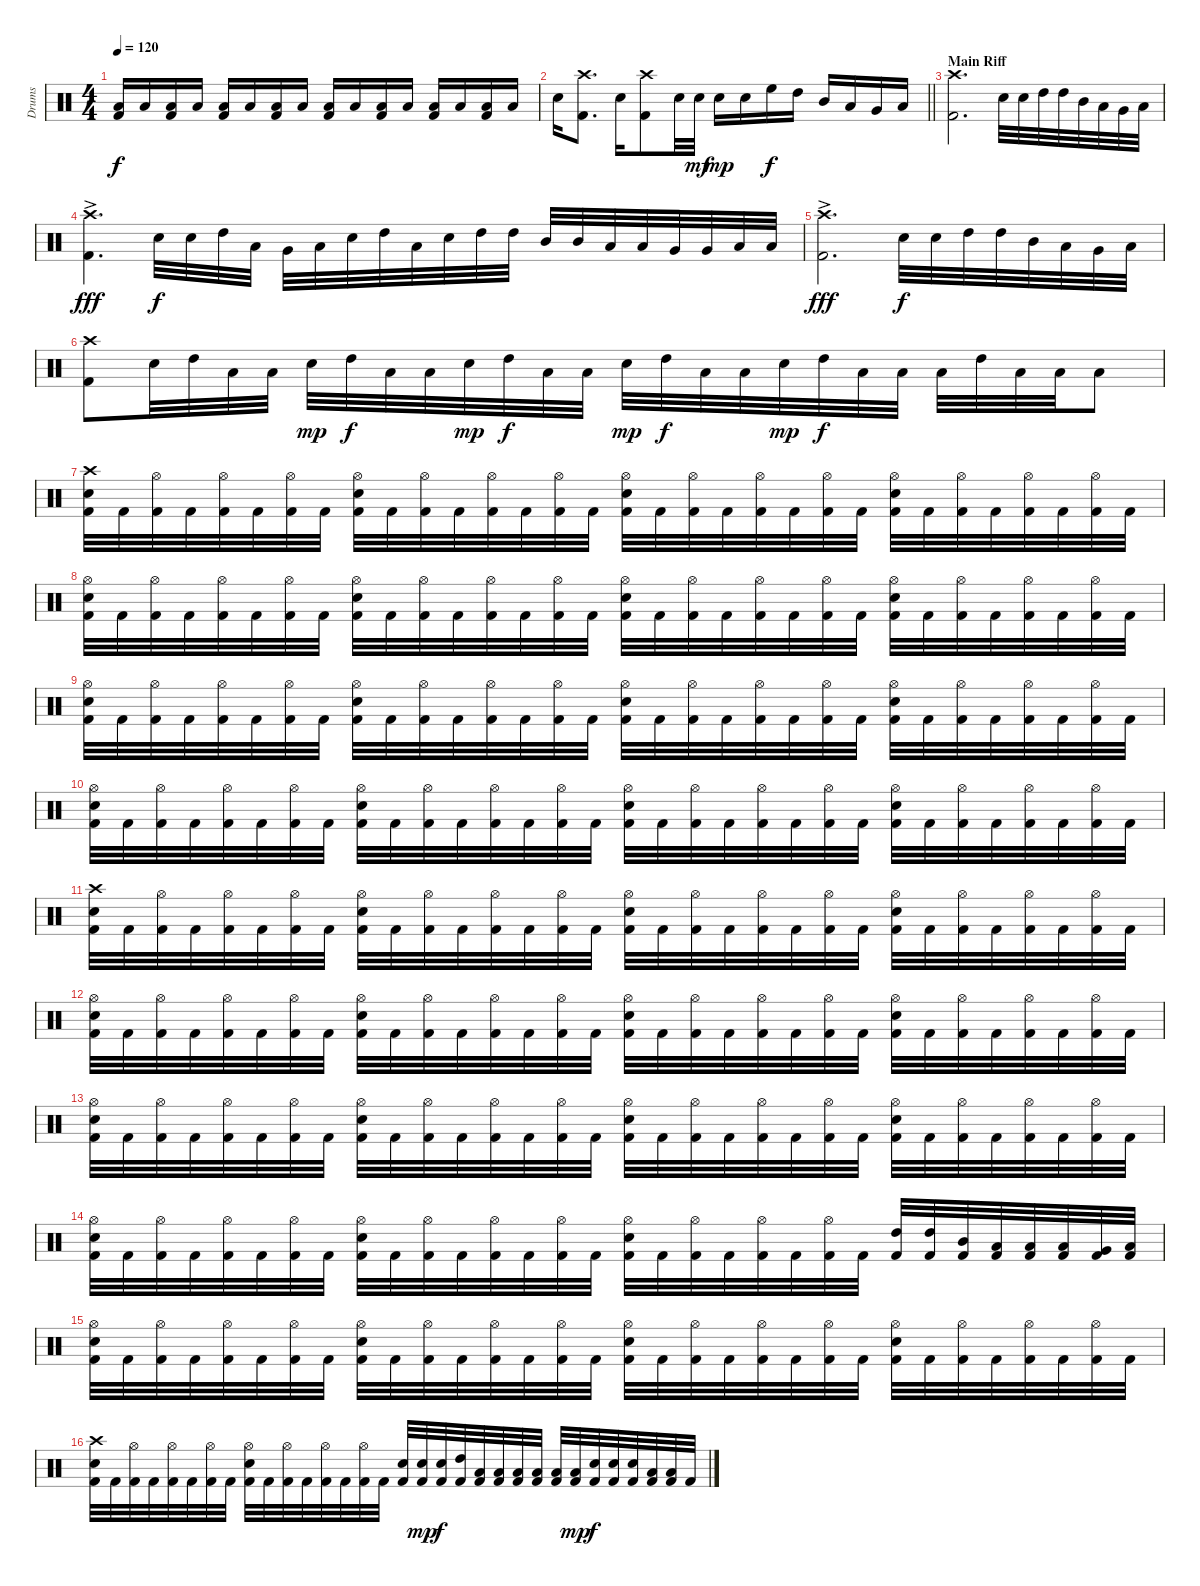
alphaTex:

\track ("Drums" "Drums") {instrument percussion}
\staff {score}
\articulation defaults
\ts (4 4)
\tempo 120
\clef neutral
\ks c
("Low Floor Tom (hit)" "Kick (hit) 2").16{dy f} "Low Tom (hit)".16 ("Low Floor Tom (hit)" "Kick (hit) 2").16 "Low Tom (hit)".16 ("Low Floor Tom (hit)" "Kick (hit) 2").16 "Low Tom (hit)".16 ("Low Floor Tom (hit)" "Kick (hit) 2").16 "Low Tom (hit)".16 ("Low Floor Tom (hit)" "Kick (hit) 2").16 "Low Tom (hit)".16 ("Low Floor Tom (hit)" "Kick (hit) 2").16 "Low Tom (hit)".16 ("Low Floor Tom (hit)" "Kick (hit) 2").16 "Low Tom (hit)".16 ("Low Floor Tom (hit)" "Kick (hit) 2").16 "Low Tom (hit)".16 |
\barLineRight lightlight "Electric Snare (hit)".16
("Crash high (hit)" "Kick (hit) 2").8{d} "Electric Snare (hit)".16 ("Crash high (hit)" "Kick (hit) 2").8 "Electric Snare (hit)".32 "Electric Snare (hit)".32{dy mf} "Electric Snare (hit)".16{dy mp} "Electric Snare (hit)".16 "High Floor Tom (hit)".16{dy f} "High Tom (hit)".16 "Mid Tom (hit)".16 "Low Tom (hit)".16 "Very Low Tom (hit)".16 "Low Floor Tom (hit)".16 |
\section ("" "Main Riff")
("Crash high (hit)" "Kick (hit) 2").2{d} "Electric Snare (hit)".32 "Electric Snare (hit)".32 "High Tom (hit)".32 "High Tom (hit)".32 "Mid Tom (hit)".32 "Low Tom (hit)".32 "Very Low Tom (hit)".32 "Low Floor Tom (hit)".32 |
("Crash high (hit)" "Kick (hit) 2"{ac}).4{d dy fff} "Electric Snare (hit)".32{dy f} "Electric Snare (hit)".32 "High Tom (hit)".32 "Low Tom (hit)".32 "Very Low Tom (hit)".32 "Low Floor Tom (hit)".32 "Electric Snare (hit)".32 "High Tom (hit)".32 "Low Tom (hit)".32 "Electric Snare (hit)".32 "High Tom (hit)".32 "High Tom (hit)".32 "Mid Tom (hit)".32 "Mid Tom (hit)".32 "Low Tom (hit)".32 "Low Tom (hit)".32 "Very Low Tom (hit)".32 "Very Low Tom (hit)".32 "Low Floor Tom (hit)".32 "Low Floor Tom (hit)".32 |
("Crash high (hit)" "Kick (hit) 2"{ac}).2{d dy fff} "Electric Snare (hit)".32{dy f} "Electric Snare (hit)".32 "High Tom (hit)".32 "High Tom (hit)".32 "Mid Tom (hit)".32 "Low Tom (hit)".32 "Very Low Tom (hit)".32 "Low Floor Tom (hit)".32 |
("Crash high (hit)" "Kick (hit) 2").8 "Electric Snare (hit)".32 "High Tom (hit)".32 "Low Tom (hit)".32 "Low Floor Tom (hit)".32 "Electric Snare (hit)".32{dy mp} "High Tom (hit)".32{dy f} "Low Tom (hit)".32 "Low Floor Tom (hit)".32 "Electric Snare (hit)".32{dy mp} "High Tom (hit)".32{dy f} "Low Tom (hit)".32 "Low Floor Tom (hit)".32 "Electric Snare (hit)".32{dy mp} "High Tom (hit)".32{dy f} "Low Tom (hit)".32 "Low Floor Tom (hit)".32 "Electric Snare (hit)".32{dy mp} "High Tom (hit)".32{dy f} "Low Tom (hit)".32 "Low Floor Tom (hit)".32 "Low Tom (hit)".32 "High Tom (hit)".32 "Low Tom (hit)".32 "Low Floor Tom (hit)".32 "Low Floor Tom (hit)".8 |
("Crash high (hit)" "Electric Snare (hit)" "Kick (hit) 2").32 "Kick (hit) 2".32 ("Hi-Hat (open)" "Kick (hit) 2").32 "Kick (hit) 2".32 ("Hi-Hat (open)" "Kick (hit) 2").32 "Kick (hit) 2".32 ("Hi-Hat (open)" "Kick (hit) 2").32 "Kick (hit) 2".32 ("Hi-Hat (open)" "Electric Snare (hit)" "Kick (hit) 2").32 "Kick (hit) 2".32 ("Hi-Hat (open)" "Kick (hit) 2").32 "Kick (hit) 2".32 ("Hi-Hat (open)" "Kick (hit) 2").32 "Kick (hit) 2".32 ("Hi-Hat (open)" "Kick (hit) 2").32 "Kick (hit) 2".32 ("Hi-Hat (open)" "Electric Snare (hit)" "Kick (hit) 2").32 "Kick (hit) 2".32 ("Hi-Hat (open)" "Kick (hit) 2").32 "Kick (hit) 2".32 ("Hi-Hat (open)" "Kick (hit) 2").32 "Kick (hit) 2".32 ("Hi-Hat (open)" "Kick (hit) 2").32 "Kick (hit) 2".32 ("Hi-Hat (open)" "Electric Snare (hit)" "Kick (hit) 2").32 "Kick (hit) 2".32 ("Hi-Hat (open)" "Kick (hit) 2").32 "Kick (hit) 2".32 ("Hi-Hat (open)" "Kick (hit) 2").32 "Kick (hit) 2".32 ("Hi-Hat (open)" "Kick (hit) 2").32 "Kick (hit) 2".32 |
("Hi-Hat (open)" "Electric Snare (hit)" "Kick (hit) 2").32 "Kick (hit) 2".32 ("Hi-Hat (open)" "Kick (hit) 2").32 "Kick (hit) 2".32 ("Hi-Hat (open)" "Kick (hit) 2").32 "Kick (hit) 2".32 ("Hi-Hat (open)" "Kick (hit) 2").32 "Kick (hit) 2".32 ("Hi-Hat (open)" "Electric Snare (hit)" "Kick (hit) 2").32 "Kick (hit) 2".32 ("Hi-Hat (open)" "Kick (hit) 2").32 "Kick (hit) 2".32 ("Hi-Hat (open)" "Kick (hit) 2").32 "Kick (hit) 2".32 ("Hi-Hat (open)" "Kick (hit) 2").32 "Kick (hit) 2".32 ("Hi-Hat (open)" "Electric Snare (hit)" "Kick (hit) 2").32 "Kick (hit) 2".32 ("Hi-Hat (open)" "Kick (hit) 2").32 "Kick (hit) 2".32 ("Hi-Hat (open)" "Kick (hit) 2").32 "Kick (hit) 2".32 ("Hi-Hat (open)" "Kick (hit) 2").32 "Kick (hit) 2".32 ("Hi-Hat (open)" "Electric Snare (hit)" "Kick (hit) 2").32 "Kick (hit) 2".32 ("Hi-Hat (open)" "Kick (hit) 2").32 "Kick (hit) 2".32 ("Hi-Hat (open)" "Kick (hit) 2").32 "Kick (hit) 2".32 ("Hi-Hat (open)" "Kick (hit) 2").32 "Kick (hit) 2".32 |
("Hi-Hat (open)" "Electric Snare (hit)" "Kick (hit) 2").32 "Kick (hit) 2".32 ("Hi-Hat (open)" "Kick (hit) 2").32 "Kick (hit) 2".32 ("Hi-Hat (open)" "Kick (hit) 2").32 "Kick (hit) 2".32 ("Hi-Hat (open)" "Kick (hit) 2").32 "Kick (hit) 2".32 ("Hi-Hat (open)" "Electric Snare (hit)" "Kick (hit) 2").32 "Kick (hit) 2".32 ("Hi-Hat (open)" "Kick (hit) 2").32 "Kick (hit) 2".32 ("Hi-Hat (open)" "Kick (hit) 2").32 "Kick (hit) 2".32 ("Hi-Hat (open)" "Kick (hit) 2").32 "Kick (hit) 2".32 ("Hi-Hat (open)" "Electric Snare (hit)" "Kick (hit) 2").32 "Kick (hit) 2".32 ("Hi-Hat (open)" "Kick (hit) 2").32 "Kick (hit) 2".32 ("Hi-Hat (open)" "Kick (hit) 2").32 "Kick (hit) 2".32 ("Hi-Hat (open)" "Kick (hit) 2").32 "Kick (hit) 2".32 ("Hi-Hat (open)" "Electric Snare (hit)" "Kick (hit) 2").32 "Kick (hit) 2".32 ("Hi-Hat (open)" "Kick (hit) 2").32 "Kick (hit) 2".32 ("Hi-Hat (open)" "Kick (hit) 2").32 "Kick (hit) 2".32 ("Hi-Hat (open)" "Kick (hit) 2").32 "Kick (hit) 2".32 |
("Hi-Hat (open)" "Electric Snare (hit)" "Kick (hit) 2").32 "Kick (hit) 2".32 ("Hi-Hat (open)" "Kick (hit) 2").32 "Kick (hit) 2".32 ("Hi-Hat (open)" "Kick (hit) 2").32 "Kick (hit) 2".32 ("Hi-Hat (open)" "Kick (hit) 2").32 "Kick (hit) 2".32 ("Hi-Hat (open)" "Electric Snare (hit)" "Kick (hit) 2").32 "Kick (hit) 2".32 ("Hi-Hat (open)" "Kick (hit) 2").32 "Kick (hit) 2".32 ("Hi-Hat (open)" "Kick (hit) 2").32 "Kick (hit) 2".32 ("Hi-Hat (open)" "Kick (hit) 2").32 "Kick (hit) 2".32 ("Hi-Hat (open)" "Electric Snare (hit)" "Kick (hit) 2").32 "Kick (hit) 2".32 ("Hi-Hat (open)" "Kick (hit) 2").32 "Kick (hit) 2".32 ("Hi-Hat (open)" "Kick (hit) 2").32 "Kick (hit) 2".32 ("Hi-Hat (open)" "Kick (hit) 2").32 "Kick (hit) 2".32 ("Hi-Hat (open)" "Electric Snare (hit)" "Kick (hit) 2").32 "Kick (hit) 2".32 ("Hi-Hat (open)" "Kick (hit) 2").32 "Kick (hit) 2".32 ("Hi-Hat (open)" "Kick (hit) 2").32 "Kick (hit) 2".32 ("Hi-Hat (open)" "Kick (hit) 2").32 "Kick (hit) 2".32 |
("Crash high (hit)" "Electric Snare (hit)" "Kick (hit) 2").32 "Kick (hit) 2".32 ("Hi-Hat (open)" "Kick (hit) 2").32 "Kick (hit) 2".32 ("Hi-Hat (open)" "Kick (hit) 2").32 "Kick (hit) 2".32 ("Hi-Hat (open)" "Kick (hit) 2").32 "Kick (hit) 2".32 ("Hi-Hat (open)" "Electric Snare (hit)" "Kick (hit) 2").32 "Kick (hit) 2".32 ("Hi-Hat (open)" "Kick (hit) 2").32 "Kick (hit) 2".32 ("Hi-Hat (open)" "Kick (hit) 2").32 "Kick (hit) 2".32 ("Hi-Hat (open)" "Kick (hit) 2").32 "Kick (hit) 2".32 ("Hi-Hat (open)" "Electric Snare (hit)" "Kick (hit) 2").32 "Kick (hit) 2".32 ("Hi-Hat (open)" "Kick (hit) 2").32 "Kick (hit) 2".32 ("Hi-Hat (open)" "Kick (hit) 2").32 "Kick (hit) 2".32 ("Hi-Hat (open)" "Kick (hit) 2").32 "Kick (hit) 2".32 ("Hi-Hat (open)" "Electric Snare (hit)" "Kick (hit) 2").32 "Kick (hit) 2".32 ("Hi-Hat (open)" "Kick (hit) 2").32 "Kick (hit) 2".32 ("Hi-Hat (open)" "Kick (hit) 2").32 "Kick (hit) 2".32 ("Hi-Hat (open)" "Kick (hit) 2").32 "Kick (hit) 2".32 |
("Hi-Hat (open)" "Electric Snare (hit)" "Kick (hit) 2").32 "Kick (hit) 2".32 ("Hi-Hat (open)" "Kick (hit) 2").32 "Kick (hit) 2".32 ("Hi-Hat (open)" "Kick (hit) 2").32 "Kick (hit) 2".32 ("Hi-Hat (open)" "Kick (hit) 2").32 "Kick (hit) 2".32 ("Hi-Hat (open)" "Electric Snare (hit)" "Kick (hit) 2").32 "Kick (hit) 2".32 ("Hi-Hat (open)" "Kick (hit) 2").32 "Kick (hit) 2".32 ("Hi-Hat (open)" "Kick (hit) 2").32 "Kick (hit) 2".32 ("Hi-Hat (open)" "Kick (hit) 2").32 "Kick (hit) 2".32 ("Hi-Hat (open)" "Electric Snare (hit)" "Kick (hit) 2").32 "Kick (hit) 2".32 ("Hi-Hat (open)" "Kick (hit) 2").32 "Kick (hit) 2".32 ("Hi-Hat (open)" "Kick (hit) 2").32 "Kick (hit) 2".32 ("Hi-Hat (open)" "Kick (hit) 2").32 "Kick (hit) 2".32 ("Hi-Hat (open)" "Electric Snare (hit)" "Kick (hit) 2").32 "Kick (hit) 2".32 ("Hi-Hat (open)" "Kick (hit) 2").32 "Kick (hit) 2".32 ("Hi-Hat (open)" "Kick (hit) 2").32 "Kick (hit) 2".32 ("Hi-Hat (open)" "Kick (hit) 2").32 "Kick (hit) 2".32 |
("Hi-Hat (open)" "Electric Snare (hit)" "Kick (hit) 2").32 "Kick (hit) 2".32 ("Hi-Hat (open)" "Kick (hit) 2").32 "Kick (hit) 2".32 ("Hi-Hat (open)" "Kick (hit) 2").32 "Kick (hit) 2".32 ("Hi-Hat (open)" "Kick (hit) 2").32 "Kick (hit) 2".32 ("Hi-Hat (open)" "Electric Snare (hit)" "Kick (hit) 2").32 "Kick (hit) 2".32 ("Hi-Hat (open)" "Kick (hit) 2").32 "Kick (hit) 2".32 ("Hi-Hat (open)" "Kick (hit) 2").32 "Kick (hit) 2".32 ("Hi-Hat (open)" "Kick (hit) 2").32 "Kick (hit) 2".32 ("Hi-Hat (open)" "Electric Snare (hit)" "Kick (hit) 2").32 "Kick (hit) 2".32 ("Hi-Hat (open)" "Kick (hit) 2").32 "Kick (hit) 2".32 ("Hi-Hat (open)" "Kick (hit) 2").32 "Kick (hit) 2".32 ("Hi-Hat (open)" "Kick (hit) 2").32 "Kick (hit) 2".32 ("Hi-Hat (open)" "Electric Snare (hit)" "Kick (hit) 2").32 "Kick (hit) 2".32 ("Hi-Hat (open)" "Kick (hit) 2").32 "Kick (hit) 2".32 ("Hi-Hat (open)" "Kick (hit) 2").32 "Kick (hit) 2".32 ("Hi-Hat (open)" "Kick (hit) 2").32 "Kick (hit) 2".32 |
("Hi-Hat (open)" "Electric Snare (hit)" "Kick (hit) 2").32 "Kick (hit) 2".32 ("Hi-Hat (open)" "Kick (hit) 2").32 "Kick (hit) 2".32 ("Hi-Hat (open)" "Kick (hit) 2").32 "Kick (hit) 2".32 ("Hi-Hat (open)" "Kick (hit) 2").32 "Kick (hit) 2".32 ("Hi-Hat (open)" "Electric Snare (hit)" "Kick (hit) 2").32 "Kick (hit) 2".32 ("Hi-Hat (open)" "Kick (hit) 2").32 "Kick (hit) 2".32 ("Hi-Hat (open)" "Kick (hit) 2").32 "Kick (hit) 2".32 ("Hi-Hat (open)" "Kick (hit) 2").32 "Kick (hit) 2".32 ("Hi-Hat (open)" "Electric Snare (hit)" "Kick (hit) 2").32 "Kick (hit) 2".32 ("Hi-Hat (open)" "Kick (hit) 2").32 "Kick (hit) 2".32 ("Hi-Hat (open)" "Kick (hit) 2").32 "Kick (hit) 2".32 ("Hi-Hat (open)" "Kick (hit) 2").32 "Kick (hit) 2".32 ("High Tom (hit)" "Kick (hit) 2").32 ("High Tom (hit)" "Kick (hit) 2").32 ("Mid Tom (hit)" "Kick (hit) 2").32 ("Low Tom (hit)" "Kick (hit) 2").32 ("Low Tom (hit)" "Kick (hit) 2").32 ("Low Tom (hit)" "Kick (hit) 2").32 ("Very Low Tom (hit)" "Kick (hit) 2").32 ("Low Floor Tom (hit)" "Kick (hit) 2").32 |
("Hi-Hat (open)" "Electric Snare (hit)" "Kick (hit) 2").32 "Kick (hit) 2".32 ("Hi-Hat (open)" "Kick (hit) 2").32 "Kick (hit) 2".32 ("Hi-Hat (open)" "Kick (hit) 2").32 "Kick (hit) 2".32 ("Hi-Hat (open)" "Kick (hit) 2").32 "Kick (hit) 2".32 ("Hi-Hat (open)" "Electric Snare (hit)" "Kick (hit) 2").32 "Kick (hit) 2".32 ("Hi-Hat (open)" "Kick (hit) 2").32 "Kick (hit) 2".32 ("Hi-Hat (open)" "Kick (hit) 2").32 "Kick (hit) 2".32 ("Hi-Hat (open)" "Kick (hit) 2").32 "Kick (hit) 2".32 ("Hi-Hat (open)" "Electric Snare (hit)" "Kick (hit) 2").32 "Kick (hit) 2".32 ("Hi-Hat (open)" "Kick (hit) 2").32 "Kick (hit) 2".32 ("Hi-Hat (open)" "Kick (hit) 2").32 "Kick (hit) 2".32 ("Hi-Hat (open)" "Kick (hit) 2").32 "Kick (hit) 2".32 ("Hi-Hat (open)" "Electric Snare (hit)" "Kick (hit) 2").32 "Kick (hit) 2".32 ("Hi-Hat (open)" "Kick (hit) 2").32 "Kick (hit) 2".32 ("Hi-Hat (open)" "Kick (hit) 2").32 "Kick (hit) 2".32 ("Hi-Hat (open)" "Kick (hit) 2").32 "Kick (hit) 2".32 |
("Crash high (hit)" "Electric Snare (hit)" "Kick (hit) 2").32 "Kick (hit) 2".32 ("Hi-Hat (open)" "Kick (hit) 2").32 "Kick (hit) 2".32 ("Hi-Hat (open)" "Kick (hit) 2").32 "Kick (hit) 2".32 ("Hi-Hat (open)" "Kick (hit) 2").32 "Kick (hit) 2".32 ("Hi-Hat (open)" "Electric Snare (hit)" "Kick (hit) 2").32 "Kick (hit) 2".32 ("Hi-Hat (open)" "Kick (hit) 2").32 "Kick (hit) 2".32 ("Hi-Hat (open)" "Kick (hit) 2").32 "Kick (hit) 2".32 ("Hi-Hat (open)" "Kick (hit) 2").32 "Kick (hit) 2".32 ("Electric Snare (hit)" "Kick (hit) 2").32 ("Electric Snare (hit)" "Kick (hit) 2").32{dy mp} ("Electric Snare (hit)" "Kick (hit) 2").32{dy f} ("High Tom (hit)" "Kick (hit) 2").32 ("Low Tom (hit)" "Kick (hit) 2").32 ("Low Tom (hit)" "Kick (hit) 2").32 ("Low Floor Tom (hit)" "Kick (hit) 2").32 ("Low Floor Tom (hit)" "Kick (hit) 2").32 ("Low Tom (hit)" "Kick (hit) 2").32 ("Low Tom (hit)" "Kick (hit) 2").32{dy mp} ("Electric Snare (hit)" "Kick (hit) 2").32{dy f} ("Electric Snare (hit)" "Kick (hit) 2").32 ("Electric Snare (hit)" "Kick (hit) 2").32 ("Low Floor Tom (hit)" "Kick (hit) 2").32 ("Low Floor Tom (hit)" "Kick (hit) 2").32 "Kick (hit) 2".32
